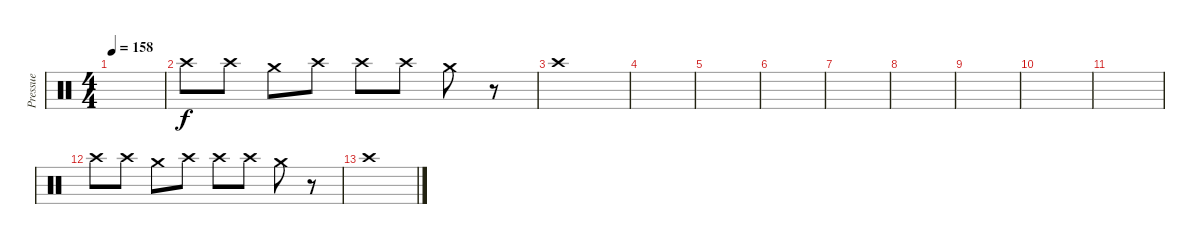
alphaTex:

\track ("Pressue" "Pressue") {instrument percussion}
\staff {score}
\articulation defaults
\ts (4 4)
\tempo 158
\clef neutral
\ks c
|
"Crash high (hit)".8{dy f} "Crash high (hit)".8 "Crash medium (hit)".8 "Crash high (hit)".8 "Crash high (hit)".8 "Crash high (hit)".8 "Crash medium (hit)".8 r.8 |
"Crash high (hit)".1 |
|
|
|
|
|
|
|
|
"Crash high (hit)".8 "Crash high (hit)".8 "Crash medium (hit)".8 "Crash high (hit)".8 "Crash high (hit)".8 "Crash high (hit)".8 "Crash medium (hit)".8 r.8 |
"Crash high (hit)".1
